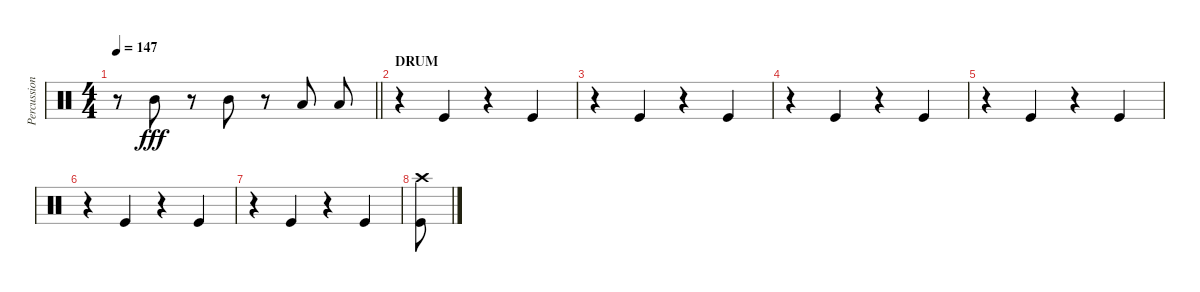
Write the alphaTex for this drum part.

\track ("Percussions" "Percussion") {instrument percussion}
\staff {score}
\articulation defaults
\ts (4 4)
\tempo 147
\clef neutral
\barLineRight lightlight
\ks c
r.8{dy fff} "Mid Tom (hit)".8 r.8 "Mid Tom (hit)".8 r.8 "Low Tom (hit)".8 "Low Tom (hit)".8 |
\section ("" "DRUM")
r.4 "Kick (hit)".4 r.4 "Kick (hit)".4 |
r.4 "Kick (hit)".4 r.4 "Kick (hit)".4 |
r.4 "Kick (hit)".4 r.4 "Kick (hit)".4 |
r.4 "Kick (hit)".4 r.4 "Kick (hit)".4 |
r.4 "Kick (hit)".4 r.4 "Kick (hit)".4 |
r.4 "Kick (hit)".4 r.4 "Kick (hit)".4 |
("Crash high (hit)" "Kick (hit)").8
